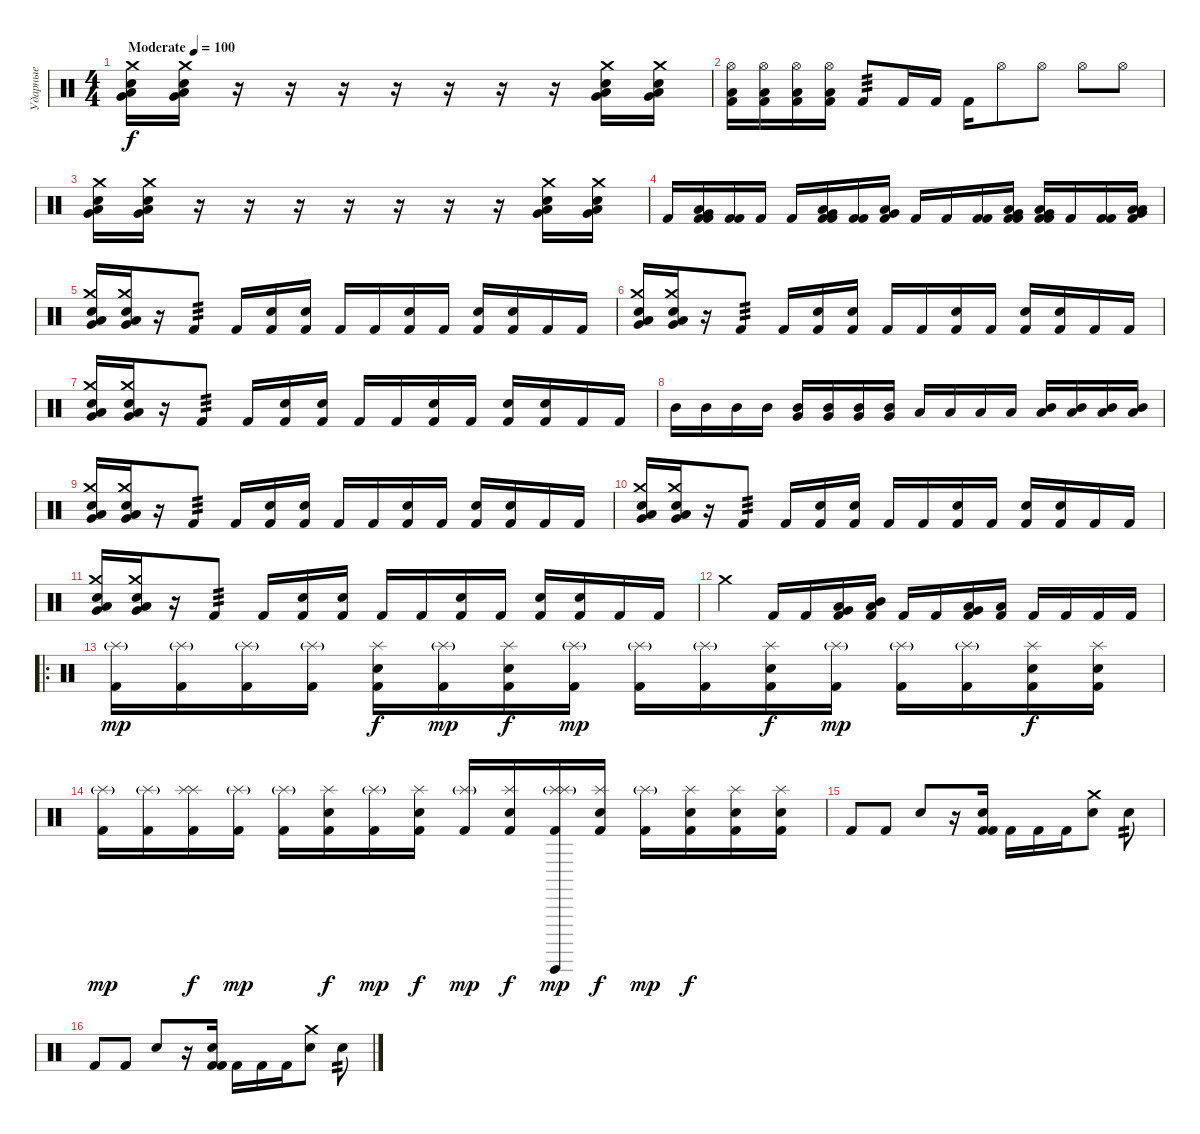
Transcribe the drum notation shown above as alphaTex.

\track ("Ударные" "Ударные") {instrument percussion}
\staff {score}
\articulation defaults
\ts (4 4)
\tempo (100 "Moderate")
\clef neutral
\ks c
("Snare (hit) 2" "Crash medium (hit)" "Very Low Tom (hit)" "Low Tom (hit)").16{dy f} ("Snare (hit) 2" "Crash medium (hit)" "Very Low Tom (hit)" "Low Tom (hit)").16 r.16 r.16 r.16 r.16 r.16 r.16 r.16 ("Snare (hit) 2" "Crash medium (hit)" "Very Low Tom (hit)" "Low Tom (hit)").16 ("Snare (hit) 2" "Crash medium (hit)" "Very Low Tom (hit)" "Low Tom (hit)").16 |
("Kick (hit) 2" "Low Floor Tom (hit)" "Hi-Hat (open)").16 ("Kick (hit) 2" "Low Floor Tom (hit)" "Hi-Hat (open)").16 ("Kick (hit) 2" "Low Floor Tom (hit)" "Hi-Hat (open)").16 ("Kick (hit) 2" "Low Floor Tom (hit)" "Hi-Hat (open)").16 "Kick (hit) 2".8{tp 3} "Kick (hit) 2".16 "Kick (hit) 2".16 "Kick (hit) 2".16 "Hi-Hat (open)".8 "Hi-Hat (open)".8 "Hi-Hat (open)".8 "Hi-Hat (open)".8 |
("Snare (hit) 2" "Crash medium (hit)" "Very Low Tom (hit)" "Low Tom (hit)").16 ("Snare (hit) 2" "Crash medium (hit)" "Very Low Tom (hit)" "Low Tom (hit)").16 r.16 r.16 r.16 r.16 r.16 r.16 r.16 ("Snare (hit) 2" "Crash medium (hit)" "Very Low Tom (hit)" "Low Tom (hit)").16 ("Snare (hit) 2" "Crash medium (hit)" "Very Low Tom (hit)" "Low Tom (hit)").16 |
"Kick (hit) 2".16 ("Kick (hit) 2" "Kick (hit) 2" "Low Floor Tom (hit)" "Very Low Tom (hit)").16 ("Kick (hit) 2" "Kick (hit) 2").16 "Kick (hit) 2".16 "Kick (hit) 2".16 ("Kick (hit) 2" "Kick (hit) 2" "Low Floor Tom (hit)" "Very Low Tom (hit)").16 ("Kick (hit) 2" "Kick (hit) 2").16 ("Kick (hit) 2" "Low Floor Tom (hit)" "Very Low Tom (hit)").16 "Kick (hit) 2".16 "Kick (hit) 2".16 ("Kick (hit) 2" "Kick (hit) 2").16 ("Kick (hit) 2" "Kick (hit) 2" "Low Floor Tom (hit)" "Very Low Tom (hit)").16 ("Kick (hit) 2" "Kick (hit) 2" "Low Floor Tom (hit)" "Very Low Tom (hit)").16 "Kick (hit) 2".16 ("Kick (hit) 2" "Kick (hit) 2").16 ("Kick (hit) 2" "Low Floor Tom (hit)" "Low Floor Tom (hit)" "Very Low Tom (hit)").16 |
("Snare (hit) 2" "Crash medium (hit)" "Very Low Tom (hit)" "Low Tom (hit)").16 ("Snare (hit) 2" "Crash medium (hit)" "Very Low Tom (hit)" "Low Tom (hit)").16 r.16 "Kick (hit) 2".8{tp 3} "Kick (hit) 2".16 ("Kick (hit) 2" "Snare (hit) 2").16 ("Kick (hit) 2" "Snare (hit) 2").16 "Kick (hit) 2".16 "Kick (hit) 2".16 ("Kick (hit) 2" "Snare (hit) 2").16 "Kick (hit) 2".16 ("Kick (hit) 2" "Snare (hit) 2").16 ("Kick (hit) 2" "Snare (hit) 2").16 "Kick (hit) 2".16 "Kick (hit) 2".16 |
("Snare (hit) 2" "Crash medium (hit)" "Very Low Tom (hit)" "Low Tom (hit)").16 ("Snare (hit) 2" "Crash medium (hit)" "Very Low Tom (hit)" "Low Tom (hit)").16 r.16 "Kick (hit) 2".8{tp 3} "Kick (hit) 2".16 ("Kick (hit) 2" "Snare (hit) 2").16 ("Kick (hit) 2" "Snare (hit) 2").16 "Kick (hit) 2".16 "Kick (hit) 2".16 ("Kick (hit) 2" "Snare (hit) 2").16 "Kick (hit) 2".16 ("Kick (hit) 2" "Snare (hit) 2").16 ("Kick (hit) 2" "Snare (hit) 2").16 "Kick (hit) 2".16 "Kick (hit) 2".16 |
("Snare (hit) 2" "Crash medium (hit)" "Very Low Tom (hit)" "Low Tom (hit)").16 ("Snare (hit) 2" "Crash medium (hit)" "Very Low Tom (hit)" "Low Tom (hit)").16 r.16 "Kick (hit) 2".8{tp 3} "Kick (hit) 2".16 ("Kick (hit) 2" "Snare (hit) 2").16 ("Kick (hit) 2" "Snare (hit) 2").16 "Kick (hit) 2".16 "Kick (hit) 2".16 ("Kick (hit) 2" "Snare (hit) 2").16 "Kick (hit) 2".16 ("Kick (hit) 2" "Snare (hit) 2").16 ("Kick (hit) 2" "Snare (hit) 2").16 "Kick (hit) 2".16 "Kick (hit) 2".16 |
"Mid Tom (hit)".16 "Mid Tom (hit)".16 "Mid Tom (hit)".16 "Mid Tom (hit)".16 ("Mid Tom (hit)" "Very Low Tom (hit)").16 ("Mid Tom (hit)" "Very Low Tom (hit)").16 ("Mid Tom (hit)" "Very Low Tom (hit)").16 ("Mid Tom (hit)" "Very Low Tom (hit)").16 "Low Tom (hit)".16 "Low Tom (hit)".16 "Low Tom (hit)".16 "Low Tom (hit)".16 ("Low Tom (hit)" "Mid Tom (hit)").16 ("Low Tom (hit)" "Mid Tom (hit)").16 ("Low Tom (hit)" "Mid Tom (hit)").16 ("Low Tom (hit)" "Mid Tom (hit)").16 |
("Snare (hit) 2" "Crash medium (hit)" "Very Low Tom (hit)" "Low Tom (hit)").16 ("Snare (hit) 2" "Crash medium (hit)" "Very Low Tom (hit)" "Low Tom (hit)").16 r.16 "Kick (hit) 2".8{tp 3} "Kick (hit) 2".16 ("Kick (hit) 2" "Snare (hit) 2").16 ("Kick (hit) 2" "Snare (hit) 2").16 "Kick (hit) 2".16 "Kick (hit) 2".16 ("Kick (hit) 2" "Snare (hit) 2").16 "Kick (hit) 2".16 ("Kick (hit) 2" "Snare (hit) 2").16 ("Kick (hit) 2" "Snare (hit) 2").16 "Kick (hit) 2".16 "Kick (hit) 2".16 |
("Snare (hit) 2" "Crash medium (hit)" "Very Low Tom (hit)" "Low Tom (hit)").16 ("Snare (hit) 2" "Crash medium (hit)" "Very Low Tom (hit)" "Low Tom (hit)").16 r.16 "Kick (hit) 2".8{tp 3} "Kick (hit) 2".16 ("Kick (hit) 2" "Snare (hit) 2").16 ("Kick (hit) 2" "Snare (hit) 2").16 "Kick (hit) 2".16 "Kick (hit) 2".16 ("Kick (hit) 2" "Snare (hit) 2").16 "Kick (hit) 2".16 ("Kick (hit) 2" "Snare (hit) 2").16 ("Kick (hit) 2" "Snare (hit) 2").16 "Kick (hit) 2".16 "Kick (hit) 2".16 |
("Snare (hit) 2" "Crash medium (hit)" "Very Low Tom (hit)" "Low Tom (hit)").16 ("Snare (hit) 2" "Crash medium (hit)" "Very Low Tom (hit)" "Low Tom (hit)").16 r.16 "Kick (hit) 2".8{tp 3} "Kick (hit) 2".16 ("Kick (hit) 2" "Snare (hit) 2").16 ("Kick (hit) 2" "Snare (hit) 2").16 "Kick (hit) 2".16 "Kick (hit) 2".16 ("Kick (hit) 2" "Snare (hit) 2").16 "Kick (hit) 2".16 ("Kick (hit) 2" "Snare (hit) 2").16 ("Kick (hit) 2" "Snare (hit) 2").16 "Kick (hit) 2".16 "Kick (hit) 2".16 |
"Crash medium (hit)".4 "Kick (hit) 2".16 "Kick (hit) 2".16 ("Kick (hit) 2" "Very Low Tom (hit)" "Low Tom (hit)").16 ("Kick (hit) 2" "Low Tom (hit)" "Mid Tom (hit)").16 "Kick (hit) 2".16 "Kick (hit) 2".16 ("Kick (hit) 2" "Very Low Tom (hit)" "Low Tom (hit)").16 ("Kick (hit) 2" "Low Floor Tom (hit)").16 "Kick (hit) 2".16 "Kick (hit) 2".16 "Kick (hit) 2".16 "Kick (hit) 2".16 |
\ro
("Kick (hit) 2" "Splash (hit)"{g}).16{dy mp} ("Kick (hit) 2" "Splash (hit)"{g}).16 ("Kick (hit) 2" "Splash (hit)"{g}).16 ("Kick (hit) 2" "Splash (hit)"{g}).16 ("Kick (hit) 2" "Snare (hit) 2" "Splash (hit)").16{dy f} ("Kick (hit) 2" "Splash (hit)"{g}).16{dy mp} ("Kick (hit) 2" "Snare (hit) 2" "Splash (hit)").16{dy f} ("Kick (hit) 2" "Splash (hit)"{g}).16{dy mp} ("Kick (hit) 2" "Splash (hit)"{g}).16 ("Kick (hit) 2" "Splash (hit)"{g}).16 ("Kick (hit) 2" "Snare (hit) 2" "Splash (hit)").16{dy f} ("Kick (hit) 2" "Splash (hit)"{g}).16{dy mp} ("Kick (hit) 2" "Splash (hit)"{g}).16 ("Kick (hit) 2" "Splash (hit)"{g}).16 ("Kick (hit) 2" "Snare (hit) 2" "Splash (hit)").16{dy f} ("Kick (hit) 2" "Snare (hit) 2" "Splash (hit)").16 |
("Kick (hit) 2" "Splash (hit)"{g}).16{dy mp} ("Kick (hit) 2" "Splash (hit)"{g}).16 ("Kick (hit) 2" "Splash (hit)" "Splash (hit)").16{dy f} ("Kick (hit) 2" "Splash (hit)"{g}).16{dy mp} ("Kick (hit) 2" "Splash (hit)"{g}).16 ("Kick (hit) 2" "Snare (hit) 2" "Splash (hit)").16{dy f} ("Kick (hit) 2" "Splash (hit)"{g}).16{dy mp} ("Kick (hit) 2" "Snare (hit) 2" "Splash (hit)").16{dy f} ("Kick (hit) 2" "Splash (hit)"{g}).16{dy mp} ("Kick (hit) 2" "Snare (hit) 2" "Splash (hit)").16{dy f} ("Kick (hit) 2" "Splash (hit)"{g} "Guiro (hit)" "Splash (hit)").16{dy mp} ("Kick (hit) 2" "Snare (hit) 2" "Splash (hit)").16{dy f} ("Kick (hit) 2" "Splash (hit)"{g}).16{dy mp} ("Kick (hit) 2" "Snare (hit) 2" "Splash (hit)").16{dy f} ("Kick (hit) 2" "Snare (hit) 2" "Splash (hit)").16 ("Kick (hit) 2" "Snare (hit) 2" "Splash (hit)").16 |
"Kick (hit) 2".8 "Kick (hit) 2".8 "Snare (hit) 2".8 r.16 ("Kick (hit) 2" "Kick (hit) 2" "Snare (hit) 2").16 "Kick (hit) 2".16 "Kick (hit) 2".16 "Kick (hit) 2".16 ("Snare (hit) 2" "Crash medium (hit)").8 "Snare (hit) 2".8{tp 2} |
"Kick (hit) 2".8 "Kick (hit) 2".8 "Snare (hit) 2".8 r.16 ("Kick (hit) 2" "Kick (hit) 2" "Snare (hit) 2").16 "Kick (hit) 2".16 "Kick (hit) 2".16 "Kick (hit) 2".16 ("Snare (hit) 2" "Crash medium (hit)").8 "Snare (hit) 2".8{tp 2}
